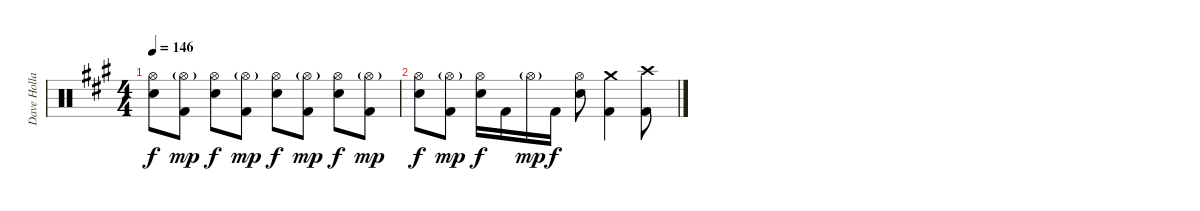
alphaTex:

\track ("Dave Holland" "Dave Holla") {instrument percussion}
\staff {score}
\articulation defaults
\ts (4 4)
\tempo 146
\clef neutral
\ks a
("Hi-Hat (open)" "Electric Snare (hit)").8{dy f} ("Hi-Hat (open)"{g} "Kick (hit) 2").8{dy mp} ("Hi-Hat (open)" "Electric Snare (hit)").8{dy f} ("Hi-Hat (open)"{g} "Kick (hit) 2").8{dy mp} ("Hi-Hat (open)" "Electric Snare (hit)").8{dy f} ("Hi-Hat (open)"{g} "Kick (hit) 2").8{dy mp} ("Hi-Hat (open)" "Electric Snare (hit)").8{dy f} ("Hi-Hat (open)"{g} "Kick (hit) 2").8{dy mp} |
("Hi-Hat (open)" "Electric Snare (hit)").8{dy f} ("Hi-Hat (open)"{g} "Kick (hit) 2").8{dy mp} ("Hi-Hat (open)" "Electric Snare (hit)").16{dy f} "Kick (hit) 2".16 "Hi-Hat (open)"{g}.16{dy mp} "Kick (hit) 2".16{dy f} ("Hi-Hat (open)" "Electric Snare (hit)").8 ("Crash medium (hit)" "Kick (hit) 2").4 ("Crash high (hit)" "Kick (hit) 2").8
